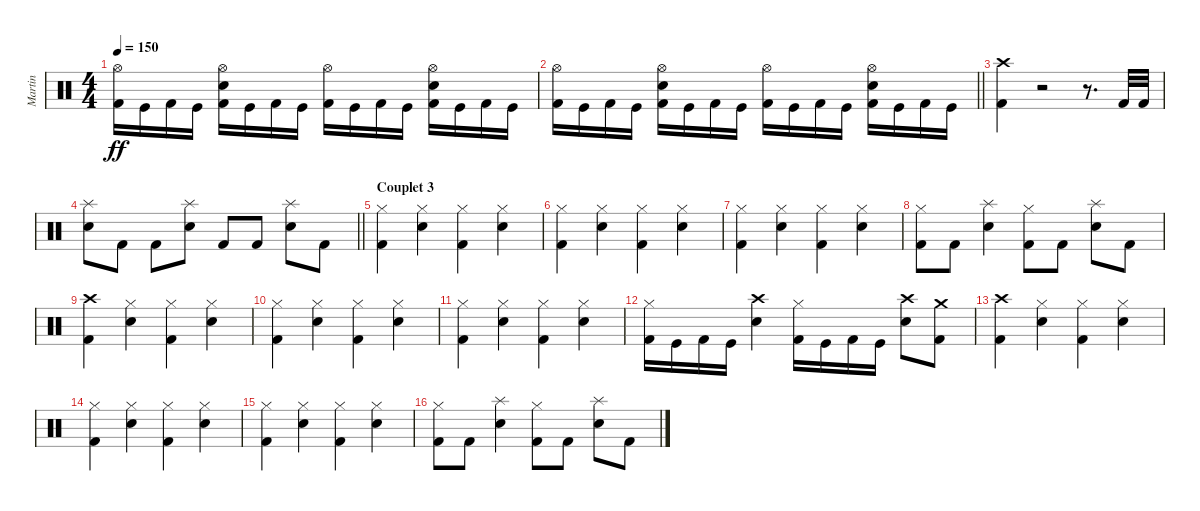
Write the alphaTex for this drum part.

\track ("Martin" "Martin") {instrument percussion}
\staff {score}
\articulation defaults
\ts (4 4)
\tempo 150
\clef neutral
\ks c
("Hi-Hat (open)" "Kick (hit) 2").16{dy ff} "Kick (hit)".16 "Kick (hit) 2".16 "Kick (hit)".16 ("Hi-Hat (open)" "Electric Snare (hit)" "Kick (hit) 2").16 "Kick (hit)".16 "Kick (hit) 2".16 "Kick (hit)".16 ("Hi-Hat (open)" "Kick (hit) 2").16 "Kick (hit)".16 "Kick (hit) 2".16 "Kick (hit)".16 ("Hi-Hat (open)" "Electric Snare (hit)" "Kick (hit) 2").16 "Kick (hit)".16 "Kick (hit) 2".16 "Kick (hit)".16 |
\barLineRight lightlight
("Hi-Hat (open)" "Kick (hit) 2").16 "Kick (hit)".16 "Kick (hit) 2".16 "Kick (hit)".16 ("Hi-Hat (open)" "Electric Snare (hit)" "Kick (hit) 2").16 "Kick (hit)".16 "Kick (hit) 2".16 "Kick (hit)".16 ("Hi-Hat (open)" "Kick (hit) 2").16 "Kick (hit)".16 "Kick (hit) 2".16 "Kick (hit)".16 ("Hi-Hat (open)" "Electric Snare (hit)" "Kick (hit) 2").16 "Kick (hit)".16 "Kick (hit) 2".16 "Kick (hit)".16 |
("Crash high (hit)" "Kick (hit) 2").4 r.2 r.8{d} "Kick (hit) 2".32 "Kick (hit) 2".32 |
\barLineRight lightlight
("Splash (hit)" "Electric Snare (hit)").8 "Kick (hit) 2".8 "Kick (hit) 2".8 ("Splash (hit)" "Electric Snare (hit)").8 "Kick (hit) 2".8 "Kick (hit) 2".8 ("Splash (hit)" "Electric Snare (hit)").8 "Kick (hit) 2".8 |
\section ("" "Couplet 3")
("Hi-Hat (closed)" "Kick (hit) 2").4 ("Hi-Hat (closed)" "Electric Snare (hit)").4 ("Hi-Hat (closed)" "Kick (hit) 2").4 ("Hi-Hat (closed)" "Electric Snare (hit)").4 |
("Hi-Hat (closed)" "Kick (hit) 2").4 ("Hi-Hat (closed)" "Electric Snare (hit)").4 ("Hi-Hat (closed)" "Kick (hit) 2").4 ("Hi-Hat (closed)" "Electric Snare (hit)").4 |
("Hi-Hat (closed)" "Kick (hit) 2").4 ("Hi-Hat (closed)" "Electric Snare (hit)").4 ("Hi-Hat (closed)" "Kick (hit) 2").4 ("Hi-Hat (closed)" "Electric Snare (hit)").4 |
("Hi-Hat (closed)" "Kick (hit) 2").8 "Kick (hit) 2".8 ("Splash (hit)" "Electric Snare (hit)").4 ("Hi-Hat (closed)" "Kick (hit) 2").8 "Kick (hit) 2".8 ("Splash (hit)" "Electric Snare (hit)").8 "Kick (hit) 2".8 |
("Crash high (hit)" "Kick (hit) 2").4 ("Hi-Hat (closed)" "Electric Snare (hit)").4 ("Hi-Hat (closed)" "Kick (hit) 2").4 ("Hi-Hat (closed)" "Electric Snare (hit)").4 |
("Hi-Hat (closed)" "Kick (hit) 2").4 ("Hi-Hat (closed)" "Electric Snare (hit)").4 ("Hi-Hat (closed)" "Kick (hit) 2").4 ("Hi-Hat (closed)" "Electric Snare (hit)").4 |
("Hi-Hat (closed)" "Kick (hit) 2").4 ("Hi-Hat (closed)" "Electric Snare (hit)").4 ("Hi-Hat (closed)" "Kick (hit) 2").4 ("Hi-Hat (closed)" "Electric Snare (hit)").4 |
("Hi-Hat (closed)" "Kick (hit) 2").16 "Kick (hit)".16 "Kick (hit) 2".16 "Kick (hit)".16 ("Crash high (hit)" "Electric Snare (hit)").4 ("Hi-Hat (closed)" "Kick (hit) 2").16 "Kick (hit)".16 "Kick (hit) 2".16 "Kick (hit)".16 ("Crash high (hit)" "Electric Snare (hit)").8 ("Crash medium (hit)" "Kick (hit) 2").8 |
("Crash high (hit)" "Kick (hit) 2").4 ("Hi-Hat (closed)" "Electric Snare (hit)").4 ("Hi-Hat (closed)" "Kick (hit) 2").4 ("Hi-Hat (closed)" "Electric Snare (hit)").4 |
("Hi-Hat (closed)" "Kick (hit) 2").4 ("Hi-Hat (closed)" "Electric Snare (hit)").4 ("Hi-Hat (closed)" "Kick (hit) 2").4 ("Hi-Hat (closed)" "Electric Snare (hit)").4 |
("Hi-Hat (closed)" "Kick (hit) 2").4 ("Hi-Hat (closed)" "Electric Snare (hit)").4 ("Hi-Hat (closed)" "Kick (hit) 2").4 ("Hi-Hat (closed)" "Electric Snare (hit)").4 |
("Hi-Hat (closed)" "Kick (hit) 2").8 "Kick (hit) 2".8 ("Splash (hit)" "Electric Snare (hit)").4 ("Hi-Hat (closed)" "Kick (hit) 2").8 "Kick (hit) 2".8 ("Splash (hit)" "Electric Snare (hit)").8 "Kick (hit) 2".8
